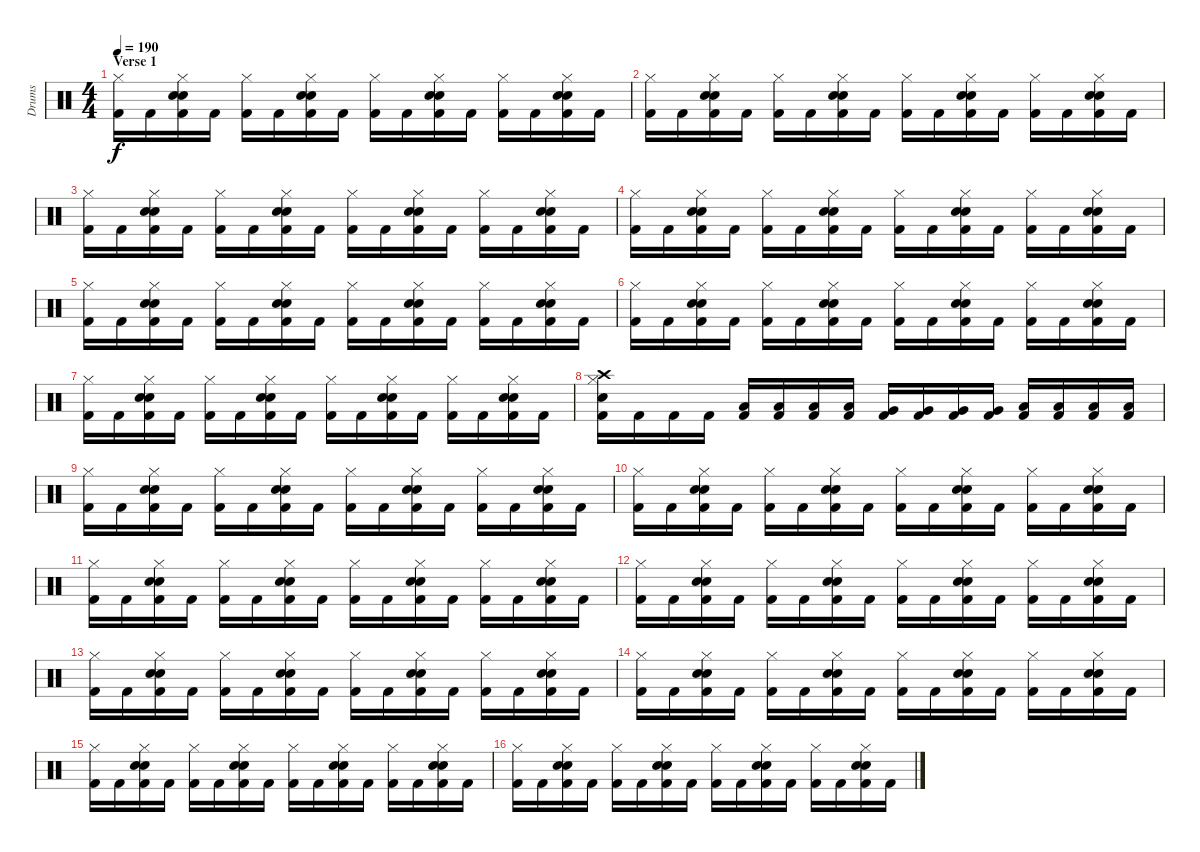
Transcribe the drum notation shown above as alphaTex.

\track ("Drums" "Drums") {instrument percussion}
\staff {score}
\articulation defaults
\ts (4 4)
\section ("" "Verse 1")
\tempo 190
\clef neutral
\ks c
("Hi-Hat (closed)" "Kick (hit) 2").16{dy f} "Kick (hit) 2".16 ("Snare (hit) 2" "Hi-Hat (closed)" "Snare (hit) 2" "Kick (hit) 2").16 "Kick (hit) 2".16 ("Hi-Hat (closed)" "Kick (hit) 2").16 "Kick (hit) 2".16 ("Snare (hit) 2" "Hi-Hat (closed)" "Snare (hit) 2" "Kick (hit) 2").16 "Kick (hit) 2".16 ("Hi-Hat (closed)" "Kick (hit) 2").16 "Kick (hit) 2".16 ("Snare (hit) 2" "Hi-Hat (closed)" "Snare (hit) 2" "Kick (hit) 2").16 "Kick (hit) 2".16 ("Hi-Hat (closed)" "Kick (hit) 2").16 "Kick (hit) 2".16 ("Snare (hit) 2" "Hi-Hat (closed)" "Snare (hit) 2" "Kick (hit) 2").16 "Kick (hit) 2".16 |
("Hi-Hat (closed)" "Kick (hit) 2").16 "Kick (hit) 2".16 ("Snare (hit) 2" "Hi-Hat (closed)" "Snare (hit) 2" "Kick (hit) 2").16 "Kick (hit) 2".16 ("Hi-Hat (closed)" "Kick (hit) 2").16 "Kick (hit) 2".16 ("Snare (hit) 2" "Hi-Hat (closed)" "Snare (hit) 2" "Kick (hit) 2").16 "Kick (hit) 2".16 ("Hi-Hat (closed)" "Kick (hit) 2").16 "Kick (hit) 2".16 ("Snare (hit) 2" "Hi-Hat (closed)" "Snare (hit) 2" "Kick (hit) 2").16 "Kick (hit) 2".16 ("Hi-Hat (closed)" "Kick (hit) 2").16 "Kick (hit) 2".16 ("Snare (hit) 2" "Hi-Hat (closed)" "Snare (hit) 2" "Kick (hit) 2").16 "Kick (hit) 2".16 |
("Hi-Hat (closed)" "Kick (hit) 2").16 "Kick (hit) 2".16 ("Snare (hit) 2" "Hi-Hat (closed)" "Snare (hit) 2" "Kick (hit) 2").16 "Kick (hit) 2".16 ("Hi-Hat (closed)" "Kick (hit) 2").16 "Kick (hit) 2".16 ("Snare (hit) 2" "Hi-Hat (closed)" "Snare (hit) 2" "Kick (hit) 2").16 "Kick (hit) 2".16 ("Hi-Hat (closed)" "Kick (hit) 2").16 "Kick (hit) 2".16 ("Snare (hit) 2" "Hi-Hat (closed)" "Snare (hit) 2" "Kick (hit) 2").16 "Kick (hit) 2".16 ("Hi-Hat (closed)" "Kick (hit) 2").16 "Kick (hit) 2".16 ("Snare (hit) 2" "Hi-Hat (closed)" "Snare (hit) 2" "Kick (hit) 2").16 "Kick (hit) 2".16 |
("Hi-Hat (closed)" "Kick (hit) 2").16 "Kick (hit) 2".16 ("Snare (hit) 2" "Hi-Hat (closed)" "Snare (hit) 2" "Kick (hit) 2").16 "Kick (hit) 2".16 ("Hi-Hat (closed)" "Kick (hit) 2").16 "Kick (hit) 2".16 ("Snare (hit) 2" "Hi-Hat (closed)" "Snare (hit) 2" "Kick (hit) 2").16 "Kick (hit) 2".16 ("Hi-Hat (closed)" "Kick (hit) 2").16 "Kick (hit) 2".16 ("Snare (hit) 2" "Hi-Hat (closed)" "Snare (hit) 2" "Kick (hit) 2").16 "Kick (hit) 2".16 ("Hi-Hat (closed)" "Kick (hit) 2").16 "Kick (hit) 2".16 ("Snare (hit) 2" "Hi-Hat (closed)" "Snare (hit) 2" "Kick (hit) 2").16 "Kick (hit) 2".16 |
("Hi-Hat (closed)" "Kick (hit) 2").16 "Kick (hit) 2".16 ("Snare (hit) 2" "Hi-Hat (closed)" "Snare (hit) 2" "Kick (hit) 2").16 "Kick (hit) 2".16 ("Hi-Hat (closed)" "Kick (hit) 2").16 "Kick (hit) 2".16 ("Snare (hit) 2" "Hi-Hat (closed)" "Snare (hit) 2" "Kick (hit) 2").16 "Kick (hit) 2".16 ("Hi-Hat (closed)" "Kick (hit) 2").16 "Kick (hit) 2".16 ("Snare (hit) 2" "Hi-Hat (closed)" "Snare (hit) 2" "Kick (hit) 2").16 "Kick (hit) 2".16 ("Hi-Hat (closed)" "Kick (hit) 2").16 "Kick (hit) 2".16 ("Snare (hit) 2" "Hi-Hat (closed)" "Snare (hit) 2" "Kick (hit) 2").16 "Kick (hit) 2".16 |
("Hi-Hat (closed)" "Kick (hit) 2").16 "Kick (hit) 2".16 ("Snare (hit) 2" "Hi-Hat (closed)" "Snare (hit) 2" "Kick (hit) 2").16 "Kick (hit) 2".16 ("Hi-Hat (closed)" "Kick (hit) 2").16 "Kick (hit) 2".16 ("Snare (hit) 2" "Hi-Hat (closed)" "Snare (hit) 2" "Kick (hit) 2").16 "Kick (hit) 2".16 ("Hi-Hat (closed)" "Kick (hit) 2").16 "Kick (hit) 2".16 ("Snare (hit) 2" "Hi-Hat (closed)" "Snare (hit) 2" "Kick (hit) 2").16 "Kick (hit) 2".16 ("Hi-Hat (closed)" "Kick (hit) 2").16 "Kick (hit) 2".16 ("Snare (hit) 2" "Hi-Hat (closed)" "Snare (hit) 2" "Kick (hit) 2").16 "Kick (hit) 2".16 |
("Hi-Hat (closed)" "Kick (hit) 2").16 "Kick (hit) 2".16 ("Snare (hit) 2" "Hi-Hat (closed)" "Snare (hit) 2" "Kick (hit) 2").16 "Kick (hit) 2".16 ("Hi-Hat (closed)" "Kick (hit) 2").16 "Kick (hit) 2".16 ("Snare (hit) 2" "Hi-Hat (closed)" "Snare (hit) 2" "Kick (hit) 2").16 "Kick (hit) 2".16 ("Hi-Hat (closed)" "Kick (hit) 2").16 "Kick (hit) 2".16 ("Snare (hit) 2" "Hi-Hat (closed)" "Snare (hit) 2" "Kick (hit) 2").16 "Kick (hit) 2".16 ("Hi-Hat (closed)" "Kick (hit) 2").16 "Kick (hit) 2".16 ("Snare (hit) 2" "Hi-Hat (closed)" "Snare (hit) 2" "Kick (hit) 2").16 "Kick (hit) 2".16 |
("Crash high (hit)" "Hi-Hat (closed)" "Snare (hit) 2" "Kick (hit) 2").16 "Kick (hit) 2".16 "Kick (hit) 2".16 "Kick (hit) 2".16 ("Low Tom (hit)" "Kick (hit) 2").16 ("Low Tom (hit)" "Kick (hit) 2").16 ("Low Tom (hit)" "Kick (hit) 2").16 ("Low Tom (hit)" "Kick (hit) 2").16 ("Very Low Tom (hit)" "Kick (hit) 2").16 ("Very Low Tom (hit)" "Kick (hit) 2").16 ("Very Low Tom (hit)" "Kick (hit) 2").16 ("Very Low Tom (hit)" "Kick (hit) 2").16 ("Low Floor Tom (hit)" "Kick (hit) 2").16 ("Low Floor Tom (hit)" "Kick (hit) 2").16 ("Low Floor Tom (hit)" "Kick (hit) 2").16 ("Low Floor Tom (hit)" "Kick (hit) 2").16 |
("Hi-Hat (closed)" "Kick (hit) 2").16 "Kick (hit) 2".16 ("Snare (hit) 2" "Hi-Hat (closed)" "Snare (hit) 2" "Kick (hit) 2").16 "Kick (hit) 2".16 ("Hi-Hat (closed)" "Kick (hit) 2").16 "Kick (hit) 2".16 ("Snare (hit) 2" "Hi-Hat (closed)" "Snare (hit) 2" "Kick (hit) 2").16 "Kick (hit) 2".16 ("Hi-Hat (closed)" "Kick (hit) 2").16 "Kick (hit) 2".16 ("Snare (hit) 2" "Hi-Hat (closed)" "Snare (hit) 2" "Kick (hit) 2").16 "Kick (hit) 2".16 ("Hi-Hat (closed)" "Kick (hit) 2").16 "Kick (hit) 2".16 ("Snare (hit) 2" "Hi-Hat (closed)" "Snare (hit) 2" "Kick (hit) 2").16 "Kick (hit) 2".16 |
("Hi-Hat (closed)" "Kick (hit) 2").16 "Kick (hit) 2".16 ("Snare (hit) 2" "Hi-Hat (closed)" "Snare (hit) 2" "Kick (hit) 2").16 "Kick (hit) 2".16 ("Hi-Hat (closed)" "Kick (hit) 2").16 "Kick (hit) 2".16 ("Snare (hit) 2" "Hi-Hat (closed)" "Snare (hit) 2" "Kick (hit) 2").16 "Kick (hit) 2".16 ("Hi-Hat (closed)" "Kick (hit) 2").16 "Kick (hit) 2".16 ("Snare (hit) 2" "Hi-Hat (closed)" "Snare (hit) 2" "Kick (hit) 2").16 "Kick (hit) 2".16 ("Hi-Hat (closed)" "Kick (hit) 2").16 "Kick (hit) 2".16 ("Snare (hit) 2" "Hi-Hat (closed)" "Snare (hit) 2" "Kick (hit) 2").16 "Kick (hit) 2".16 |
("Hi-Hat (closed)" "Kick (hit) 2").16 "Kick (hit) 2".16 ("Snare (hit) 2" "Hi-Hat (closed)" "Snare (hit) 2" "Kick (hit) 2").16 "Kick (hit) 2".16 ("Hi-Hat (closed)" "Kick (hit) 2").16 "Kick (hit) 2".16 ("Snare (hit) 2" "Hi-Hat (closed)" "Snare (hit) 2" "Kick (hit) 2").16 "Kick (hit) 2".16 ("Hi-Hat (closed)" "Kick (hit) 2").16 "Kick (hit) 2".16 ("Snare (hit) 2" "Hi-Hat (closed)" "Snare (hit) 2" "Kick (hit) 2").16 "Kick (hit) 2".16 ("Hi-Hat (closed)" "Kick (hit) 2").16 "Kick (hit) 2".16 ("Snare (hit) 2" "Hi-Hat (closed)" "Snare (hit) 2" "Kick (hit) 2").16 "Kick (hit) 2".16 |
("Hi-Hat (closed)" "Kick (hit) 2").16 "Kick (hit) 2".16 ("Snare (hit) 2" "Hi-Hat (closed)" "Snare (hit) 2" "Kick (hit) 2").16 "Kick (hit) 2".16 ("Hi-Hat (closed)" "Kick (hit) 2").16 "Kick (hit) 2".16 ("Snare (hit) 2" "Hi-Hat (closed)" "Snare (hit) 2" "Kick (hit) 2").16 "Kick (hit) 2".16 ("Hi-Hat (closed)" "Kick (hit) 2").16 "Kick (hit) 2".16 ("Snare (hit) 2" "Hi-Hat (closed)" "Snare (hit) 2" "Kick (hit) 2").16 "Kick (hit) 2".16 ("Hi-Hat (closed)" "Kick (hit) 2").16 "Kick (hit) 2".16 ("Snare (hit) 2" "Hi-Hat (closed)" "Snare (hit) 2" "Kick (hit) 2").16 "Kick (hit) 2".16 |
("Hi-Hat (closed)" "Kick (hit) 2").16 "Kick (hit) 2".16 ("Snare (hit) 2" "Hi-Hat (closed)" "Snare (hit) 2" "Kick (hit) 2").16 "Kick (hit) 2".16 ("Hi-Hat (closed)" "Kick (hit) 2").16 "Kick (hit) 2".16 ("Snare (hit) 2" "Hi-Hat (closed)" "Snare (hit) 2" "Kick (hit) 2").16 "Kick (hit) 2".16 ("Hi-Hat (closed)" "Kick (hit) 2").16 "Kick (hit) 2".16 ("Snare (hit) 2" "Hi-Hat (closed)" "Snare (hit) 2" "Kick (hit) 2").16 "Kick (hit) 2".16 ("Hi-Hat (closed)" "Kick (hit) 2").16 "Kick (hit) 2".16 ("Snare (hit) 2" "Hi-Hat (closed)" "Snare (hit) 2" "Kick (hit) 2").16 "Kick (hit) 2".16 |
("Hi-Hat (closed)" "Kick (hit) 2").16 "Kick (hit) 2".16 ("Snare (hit) 2" "Hi-Hat (closed)" "Snare (hit) 2" "Kick (hit) 2").16 "Kick (hit) 2".16 ("Hi-Hat (closed)" "Kick (hit) 2").16 "Kick (hit) 2".16 ("Snare (hit) 2" "Hi-Hat (closed)" "Snare (hit) 2" "Kick (hit) 2").16 "Kick (hit) 2".16 ("Hi-Hat (closed)" "Kick (hit) 2").16 "Kick (hit) 2".16 ("Snare (hit) 2" "Hi-Hat (closed)" "Snare (hit) 2" "Kick (hit) 2").16 "Kick (hit) 2".16 ("Hi-Hat (closed)" "Kick (hit) 2").16 "Kick (hit) 2".16 ("Snare (hit) 2" "Hi-Hat (closed)" "Snare (hit) 2" "Kick (hit) 2").16 "Kick (hit) 2".16 |
("Hi-Hat (closed)" "Kick (hit) 2").16 "Kick (hit) 2".16 ("Snare (hit) 2" "Hi-Hat (closed)" "Snare (hit) 2" "Kick (hit) 2").16 "Kick (hit) 2".16 ("Hi-Hat (closed)" "Kick (hit) 2").16 "Kick (hit) 2".16 ("Snare (hit) 2" "Hi-Hat (closed)" "Snare (hit) 2" "Kick (hit) 2").16 "Kick (hit) 2".16 ("Hi-Hat (closed)" "Kick (hit) 2").16 "Kick (hit) 2".16 ("Snare (hit) 2" "Hi-Hat (closed)" "Snare (hit) 2" "Kick (hit) 2").16 "Kick (hit) 2".16 ("Hi-Hat (closed)" "Kick (hit) 2").16 "Kick (hit) 2".16 ("Snare (hit) 2" "Hi-Hat (closed)" "Snare (hit) 2" "Kick (hit) 2").16 "Kick (hit) 2".16 |
("Hi-Hat (closed)" "Kick (hit) 2").16 "Kick (hit) 2".16 ("Snare (hit) 2" "Hi-Hat (closed)" "Snare (hit) 2" "Kick (hit) 2").16 "Kick (hit) 2".16 ("Hi-Hat (closed)" "Kick (hit) 2").16 "Kick (hit) 2".16 ("Snare (hit) 2" "Hi-Hat (closed)" "Snare (hit) 2" "Kick (hit) 2").16 "Kick (hit) 2".16 ("Hi-Hat (closed)" "Kick (hit) 2").16 "Kick (hit) 2".16 ("Snare (hit) 2" "Hi-Hat (closed)" "Snare (hit) 2" "Kick (hit) 2").16 "Kick (hit) 2".16 ("Hi-Hat (closed)" "Kick (hit) 2").16 "Kick (hit) 2".16 ("Snare (hit) 2" "Hi-Hat (closed)" "Snare (hit) 2" "Kick (hit) 2").16 "Kick (hit) 2".16
